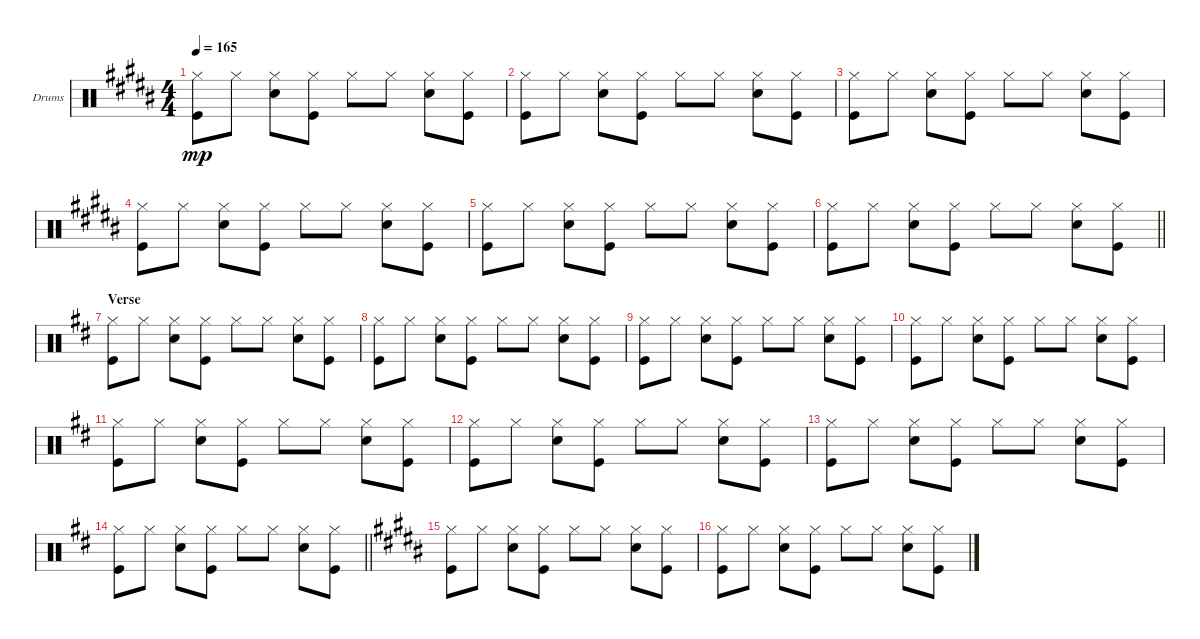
\defaultSystemsLayout 4
\bracketExtendMode groupsimilarinstruments
\firstSystemTrackNameOrientation horizontal
\otherSystemsTrackNameOrientation horizontal
\track ("Drumkit" "Drums") {instrument percussion}
\staff {score}
\articulation defaults
\ts (4 4)
\tempo 165
\clef neutral
\scale
0.333333
\ks b
("Hi-Hat (closed)" "Kick (hit)").8{dy mp} "Hi-Hat (closed)".8 ("Hi-Hat (closed)" "Snare (hit) 2").8 ("Hi-Hat (closed)" "Kick (hit)").8 "Hi-Hat (closed)".8 "Hi-Hat (closed)".8 ("Hi-Hat (closed)" "Snare (hit) 2").8 ("Hi-Hat (closed)" "Kick (hit)").8 |
\scale
0.333333 ("Hi-Hat (closed)" "Kick (hit)").8 "Hi-Hat (closed)".8 ("Hi-Hat (closed)" "Snare (hit) 2").8 ("Hi-Hat (closed)" "Kick (hit)").8 "Hi-Hat (closed)".8 "Hi-Hat (closed)".8 ("Hi-Hat (closed)" "Snare (hit) 2").8 ("Hi-Hat (closed)" "Kick (hit)").8 |
\scale
0.333333 ("Hi-Hat (closed)" "Kick (hit)").8 "Hi-Hat (closed)".8 ("Hi-Hat (closed)" "Snare (hit) 2").8 ("Hi-Hat (closed)" "Kick (hit)").8 "Hi-Hat (closed)".8 "Hi-Hat (closed)".8 ("Hi-Hat (closed)" "Snare (hit) 2").8 ("Hi-Hat (closed)" "Kick (hit)").8 |
\scale
0.333333 ("Hi-Hat (closed)" "Kick (hit)").8 "Hi-Hat (closed)".8 ("Hi-Hat (closed)" "Snare (hit) 2").8 ("Hi-Hat (closed)" "Kick (hit)").8 "Hi-Hat (closed)".8 "Hi-Hat (closed)".8 ("Hi-Hat (closed)" "Snare (hit) 2").8 ("Hi-Hat (closed)" "Kick (hit)").8 |
\scale
0.333333 ("Hi-Hat (closed)" "Kick (hit)").8 "Hi-Hat (closed)".8 ("Hi-Hat (closed)" "Snare (hit) 2").8 ("Hi-Hat (closed)" "Kick (hit)").8 "Hi-Hat (closed)".8 "Hi-Hat (closed)".8 ("Hi-Hat (closed)" "Snare (hit) 2").8 ("Hi-Hat (closed)" "Kick (hit)").8 |
\scale
0.251101
\barLineRight lightlight
("Hi-Hat (closed)" "Kick (hit)").8 "Hi-Hat (closed)".8 ("Hi-Hat (closed)" "Snare (hit) 2").8 ("Hi-Hat (closed)" "Kick (hit)").8 "Hi-Hat (closed)".8 "Hi-Hat (closed)".8 ("Hi-Hat (closed)" "Snare (hit) 2").8 ("Hi-Hat (closed)" "Kick (hit)").8 |
\section ("" "Verse")
\scale
0.497797
\ks d
("Hi-Hat (closed)" "Kick (hit)").8 "Hi-Hat (closed)".8 ("Hi-Hat (closed)" "Snare (hit) 2").8 ("Hi-Hat (closed)" "Kick (hit)").8 "Hi-Hat (closed)".8 "Hi-Hat (closed)".8 ("Hi-Hat (closed)" "Snare (hit) 2").8 ("Hi-Hat (closed)" "Kick (hit)").8 |
\scale
0.251101 ("Hi-Hat (closed)" "Kick (hit)").8 "Hi-Hat (closed)".8 ("Hi-Hat (closed)" "Snare (hit) 2").8 ("Hi-Hat (closed)" "Kick (hit)").8 "Hi-Hat (closed)".8 "Hi-Hat (closed)".8 ("Hi-Hat (closed)" "Snare (hit) 2").8 ("Hi-Hat (closed)" "Kick (hit)").8 |
\scale
0.333333 ("Hi-Hat (closed)" "Kick (hit)").8 "Hi-Hat (closed)".8 ("Hi-Hat (closed)" "Snare (hit) 2").8 ("Hi-Hat (closed)" "Kick (hit)").8 "Hi-Hat (closed)".8 "Hi-Hat (closed)".8 ("Hi-Hat (closed)" "Snare (hit) 2").8 ("Hi-Hat (closed)" "Kick (hit)").8 |
\scale
0.333333 ("Hi-Hat (closed)" "Kick (hit)").8 "Hi-Hat (closed)".8 ("Hi-Hat (closed)" "Snare (hit) 2").8 ("Hi-Hat (closed)" "Kick (hit)").8 "Hi-Hat (closed)".8 "Hi-Hat (closed)".8 ("Hi-Hat (closed)" "Snare (hit) 2").8 ("Hi-Hat (closed)" "Kick (hit)").8 |
\scale
0.333333 ("Hi-Hat (closed)" "Kick (hit)").8 "Hi-Hat (closed)".8 ("Hi-Hat (closed)" "Snare (hit) 2").8 ("Hi-Hat (closed)" "Kick (hit)").8 "Hi-Hat (closed)".8 "Hi-Hat (closed)".8 ("Hi-Hat (closed)" "Snare (hit) 2").8 ("Hi-Hat (closed)" "Kick (hit)").8 |
\scale
0.333333 ("Hi-Hat (closed)" "Kick (hit)").8 "Hi-Hat (closed)".8 ("Hi-Hat (closed)" "Snare (hit) 2").8 ("Hi-Hat (closed)" "Kick (hit)").8 "Hi-Hat (closed)".8 "Hi-Hat (closed)".8 ("Hi-Hat (closed)" "Snare (hit) 2").8 ("Hi-Hat (closed)" "Kick (hit)").8 |
\scale
0.333333 ("Hi-Hat (closed)" "Kick (hit)").8 "Hi-Hat (closed)".8 ("Hi-Hat (closed)" "Snare (hit) 2").8 ("Hi-Hat (closed)" "Kick (hit)").8 "Hi-Hat (closed)".8 "Hi-Hat (closed)".8 ("Hi-Hat (closed)" "Snare (hit) 2").8 ("Hi-Hat (closed)" "Kick (hit)").8 |
\scale
0.333333
\barLineRight lightlight
("Hi-Hat (closed)" "Kick (hit)").8 "Hi-Hat (closed)".8 ("Hi-Hat (closed)" "Snare (hit) 2").8 ("Hi-Hat (closed)" "Kick (hit)").8 "Hi-Hat (closed)".8 "Hi-Hat (closed)".8 ("Hi-Hat (closed)" "Snare (hit) 2").8 ("Hi-Hat (closed)" "Kick (hit)").8 |
\scale
0.514894
\ks b
("Hi-Hat (closed)" "Kick (hit)").8 "Hi-Hat (closed)".8 ("Hi-Hat (closed)" "Snare (hit) 2").8 ("Hi-Hat (closed)" "Kick (hit)").8 "Hi-Hat (closed)".8 "Hi-Hat (closed)".8 ("Hi-Hat (closed)" "Snare (hit) 2").8 ("Hi-Hat (closed)" "Kick (hit)").8 |
\scale
0.242553 ("Hi-Hat (closed)" "Kick (hit)").8 "Hi-Hat (closed)".8 ("Hi-Hat (closed)" "Snare (hit) 2").8 ("Hi-Hat (closed)" "Kick (hit)").8 "Hi-Hat (closed)".8 "Hi-Hat (closed)".8 ("Hi-Hat (closed)" "Snare (hit) 2").8 ("Hi-Hat (closed)" "Kick (hit)").8
